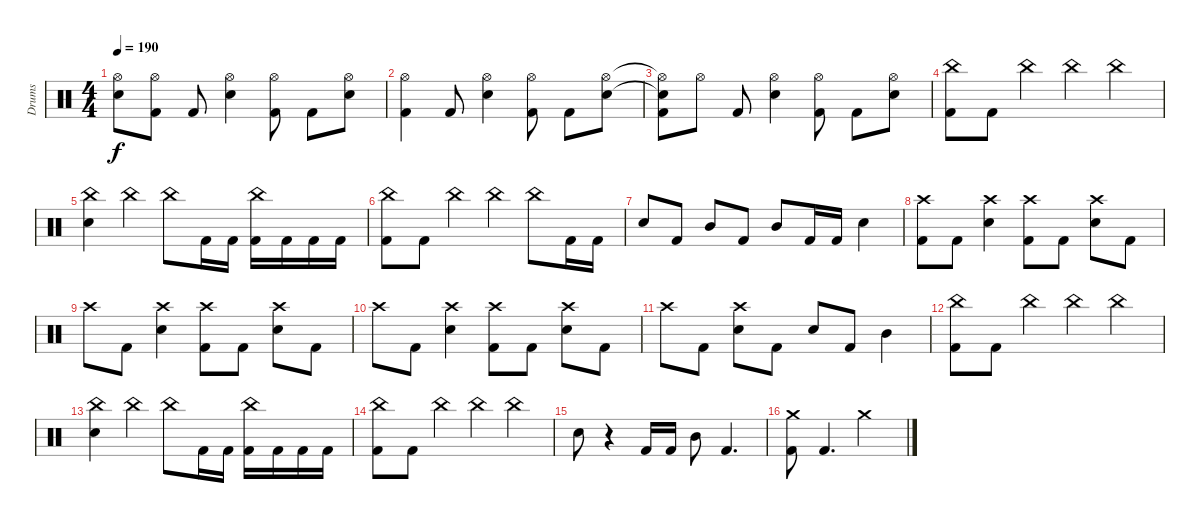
\track ("Drums" "Drums") {instrument percussion}
\staff {score}
\articulation defaults
\ts (4 4)
\tempo 190
\clef neutral
\ks c
("Hi-Hat (open)"{t} "Snare (hit)"{t}).8{dy f} ("Hi-Hat (open)" "Kick (hit) 2").8 "Kick (hit) 2".8 ("Hi-Hat (open)" "Electric Snare (hit)").4 ("Hi-Hat (open)" "Kick (hit) 2").8 "Kick (hit) 2".8 ("Hi-Hat (open)" "Electric Snare (hit)").8 |
("Hi-Hat (open)" "Kick (hit) 2").4 "Kick (hit) 2".8 ("Hi-Hat (open)" "Electric Snare (hit)").4 ("Hi-Hat (open)" "Kick (hit) 2").8 "Kick (hit) 2".8 ("Hi-Hat (open)" "Electric Snare (hit)").8 |
("Hi-Hat (open)"{t} "Snare (hit)"{t} "Kick (hit) 2").8 "Hi-Hat (open)".8 "Kick (hit) 2".8 ("Hi-Hat (open)" "Electric Snare (hit)").4 ("Hi-Hat (open)" "Kick (hit) 2").8 "Kick (hit) 2".8 ("Hi-Hat (open)" "Electric Snare (hit)").8 |
("China (hit)" "Kick (hit) 2").8 "Kick (hit) 2".8 "China (hit)".4 "China (hit)".4 "China (hit)".4 |
("China (hit)" "Electric Snare (hit)").4 "China (hit)".4 "China (hit)".8 "Kick (hit) 2".16 "Kick (hit) 2".16 ("China (hit)" "Kick (hit) 2").16 "Kick (hit) 2".16 "Kick (hit) 2".16 "Kick (hit) 2".16 |
("China (hit)" "Kick (hit) 2").8 "Kick (hit) 2".8 "China (hit)".4 "China (hit)".4 "China (hit)".8 "Kick (hit) 2".16 "Kick (hit) 2".16 |
"Electric Snare (hit)".8 "Kick (hit) 2".8 "Mid Tom (hit)".8 "Kick (hit) 2".8 "Mid Tom (hit)".8 "Kick (hit) 2".16 "Kick (hit) 2".16 "Electric Snare (hit)".4 |
("Crash high (hit)" "Kick (hit) 2").8 "Kick (hit) 2".8 ("Crash high (hit)" "Electric Snare (hit)").4 ("Crash high (hit)" "Kick (hit) 2").8 "Kick (hit) 2".8 ("Crash high (hit)" "Electric Snare (hit)").8 "Kick (hit) 2".8 |
"Crash high (hit)".8 "Kick (hit) 2".8 ("Crash high (hit)" "Electric Snare (hit)").4 ("Crash high (hit)" "Kick (hit) 2").8 "Kick (hit) 2".8 ("Crash high (hit)" "Electric Snare (hit)").8 "Kick (hit) 2".8 |
"Crash high (hit)".8 "Kick (hit) 2".8 ("Crash high (hit)" "Electric Snare (hit)").4 ("Crash high (hit)" "Kick (hit) 2").8 "Kick (hit) 2".8 ("Crash high (hit)" "Electric Snare (hit)").8 "Kick (hit) 2".8 |
"Crash high (hit)".8 "Kick (hit) 2".8 ("Crash high (hit)" "Electric Snare (hit)").8 "Kick (hit) 2".8 "Electric Snare (hit)".8 "Kick (hit) 2".8 "Mid Tom (hit)".4 |
("China (hit)" "Kick (hit) 2").8 "Kick (hit) 2".8 "China (hit)".4 "China (hit)".4 "China (hit)".4 |
("China (hit)" "Electric Snare (hit)").4 "China (hit)".4 "China (hit)".8 "Kick (hit) 2".16 "Kick (hit) 2".16 ("China (hit)" "Kick (hit) 2").16 "Kick (hit) 2".16 "Kick (hit) 2".16 "Kick (hit) 2".16 |
("China (hit)" "Kick (hit) 2").8 "Kick (hit) 2".8 "China (hit)".4 "China (hit)".4 "China (hit)".4 |
"Electric Snare (hit)".8 r.4 "Kick (hit) 2".16 "Kick (hit) 2".16 "Mid Tom (hit)".8 "Kick (hit) 2".4{d} |
("Crash medium (hit)" "Kick (hit) 2").8 "Kick (hit) 2".4{d} "Crash medium (hit)".2
